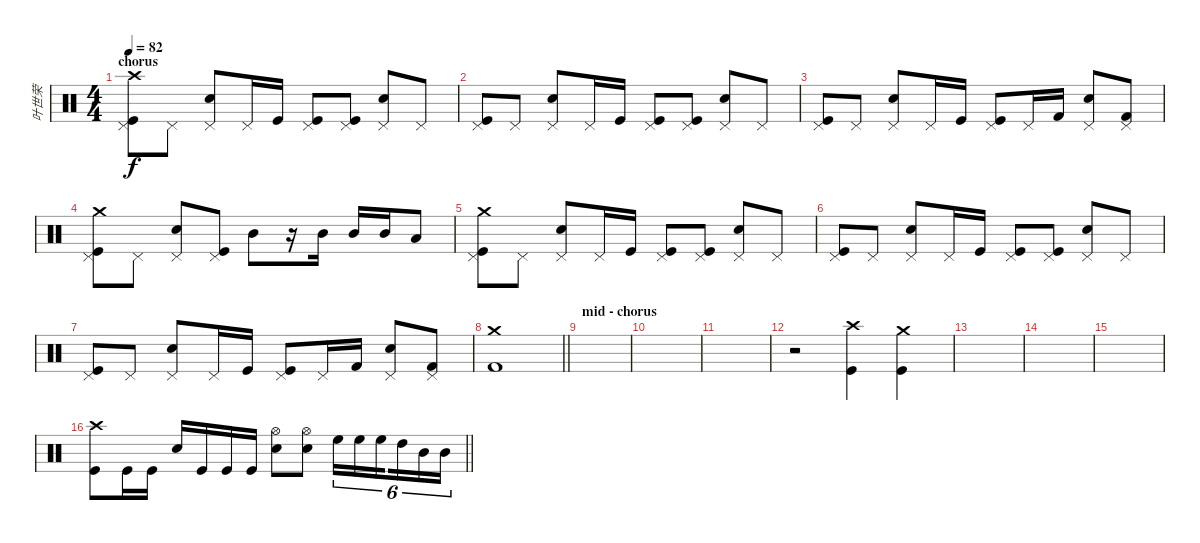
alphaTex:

\track ("叶世荣" "叶世荣") {instrument percussion}
\staff {score}
\articulation defaults
\ts (4 4)
\section ("" "chorus")
\tempo 82
\clef neutral
\ks c
("Crash high (hit)" "Pedal Hi-Hat (hit)" "Kick (hit)").8{dy f} "Pedal Hi-Hat (hit)".8 ("Electric Snare (hit)" "Pedal Hi-Hat (hit)").8 "Pedal Hi-Hat (hit)".16 "Kick (hit)".16 ("Pedal Hi-Hat (hit)" "Kick (hit)").8 ("Pedal Hi-Hat (hit)" "Kick (hit)").8 ("Electric Snare (hit)" "Pedal Hi-Hat (hit)").8 "Pedal Hi-Hat (hit)".8 |
("Pedal Hi-Hat (hit)" "Kick (hit)").8 "Pedal Hi-Hat (hit)".8 ("Electric Snare (hit)" "Pedal Hi-Hat (hit)").8 "Pedal Hi-Hat (hit)".16 "Kick (hit)".16 ("Pedal Hi-Hat (hit)" "Kick (hit)").8 ("Pedal Hi-Hat (hit)" "Kick (hit)").8 ("Electric Snare (hit)" "Pedal Hi-Hat (hit)").8 "Pedal Hi-Hat (hit)".8 |
("Pedal Hi-Hat (hit)" "Kick (hit)").8 "Pedal Hi-Hat (hit)".8 ("Electric Snare (hit)" "Pedal Hi-Hat (hit)").8 "Pedal Hi-Hat (hit)".16 "Kick (hit)".16 ("Pedal Hi-Hat (hit)" "Kick (hit)").8 "Pedal Hi-Hat (hit)".16 "Kick (hit) 2".16 ("Pedal Hi-Hat (hit)" "Electric Snare (hit)").8 ("Pedal Hi-Hat (hit)" "Kick (hit) 2").8 |
("Crash medium (hit)" "Pedal Hi-Hat (hit)" "Kick (hit)").8 "Pedal Hi-Hat (hit)".8 ("Electric Snare (hit)" "Pedal Hi-Hat (hit)").8 ("Pedal Hi-Hat (hit)" "Kick (hit)").8 "Mid Tom (hit)".8 r.16 "Mid Tom (hit)".16 "Mid Tom (hit)".16 "Mid Tom (hit)".16 "Low Tom (hit)".8 |
("Crash medium (hit)" "Pedal Hi-Hat (hit)" "Kick (hit)").8 "Pedal Hi-Hat (hit)".8 ("Electric Snare (hit)" "Pedal Hi-Hat (hit)").8 "Pedal Hi-Hat (hit)".16 "Kick (hit)".16 ("Pedal Hi-Hat (hit)" "Kick (hit)").8 ("Pedal Hi-Hat (hit)" "Kick (hit)").8 ("Electric Snare (hit)" "Pedal Hi-Hat (hit)").8 "Pedal Hi-Hat (hit)".8 |
("Pedal Hi-Hat (hit)" "Kick (hit)").8 "Pedal Hi-Hat (hit)".8 ("Electric Snare (hit)" "Pedal Hi-Hat (hit)").8 "Pedal Hi-Hat (hit)".16 "Kick (hit)".16 ("Pedal Hi-Hat (hit)" "Kick (hit)").8 ("Pedal Hi-Hat (hit)" "Kick (hit)").8 ("Electric Snare (hit)" "Pedal Hi-Hat (hit)").8 "Pedal Hi-Hat (hit)".8 |
("Pedal Hi-Hat (hit)" "Kick (hit)").8 "Pedal Hi-Hat (hit)".8 ("Electric Snare (hit)" "Pedal Hi-Hat (hit)").8 "Pedal Hi-Hat (hit)".16 "Kick (hit)".16 ("Pedal Hi-Hat (hit)" "Kick (hit)").8 "Pedal Hi-Hat (hit)".16 "Kick (hit) 2".16 ("Pedal Hi-Hat (hit)" "Electric Snare (hit)").8 ("Pedal Hi-Hat (hit)" "Kick (hit) 2").8 |
\barLineRight lightlight
("Crash medium (hit)" "Kick (hit) 2").1 |
\section ("" "mid - chorus")
|
|
|
r.2 ("Crash high (hit)" "Kick (hit)").4 ("Crash medium (hit)" "Kick (hit)").4 |
|
|
|
\barLineRight lightlight
("Crash high (hit)" "Kick (hit)").8 "Kick (hit)".16 "Kick (hit)".16 "Snare (hit) 2".16 "Kick (hit)".16 "Kick (hit)".16 "Kick (hit)".16 ("Hi-Hat (open)" "Electric Snare (hit)").8 ("Hi-Hat (open)" "Electric Snare (hit)").8 "High Floor Tom (hit)".16{tu (6 4)} "High Floor Tom (hit)".16{tu (6 4)} "High Floor Tom (hit)".16{tu (6 4) beam splitsecondary} "High Tom (hit)".16{tu (6 4)} "Mid Tom (hit)".16{tu (6 4)} "Mid Tom (hit)".16{tu (6 4)}
